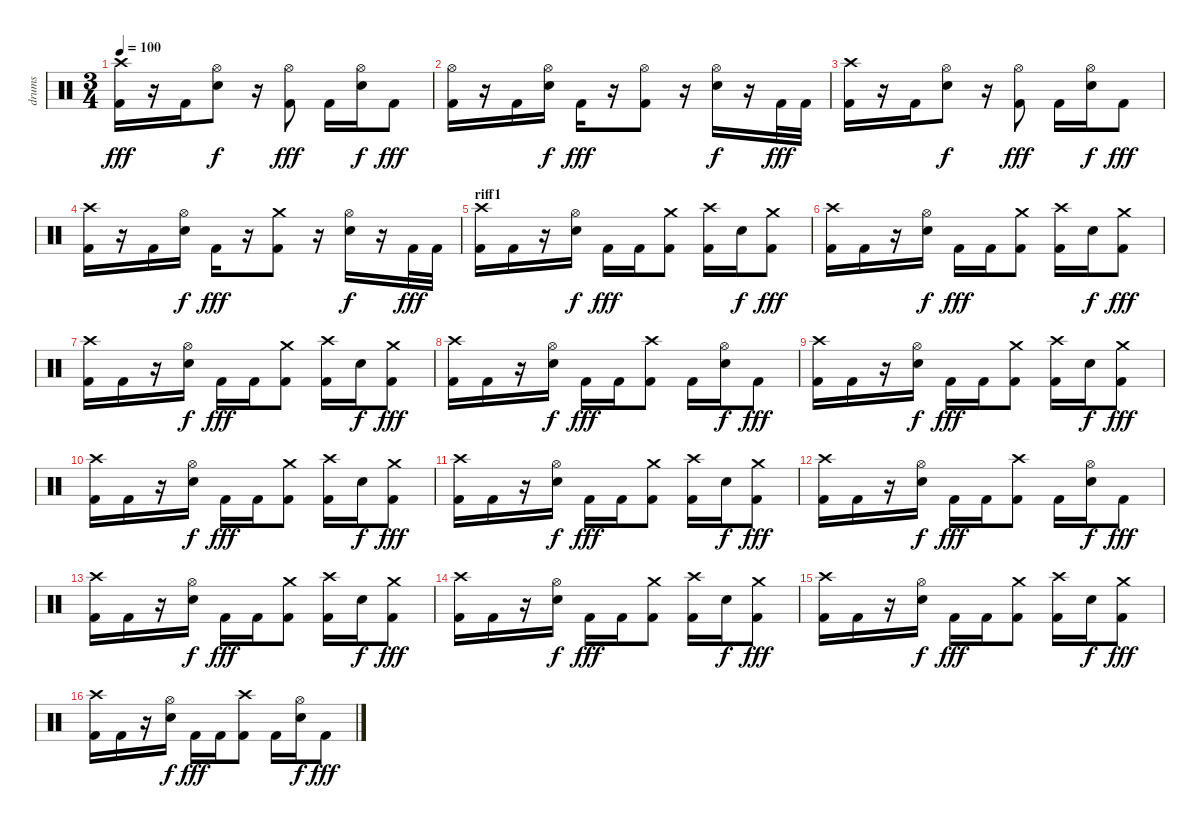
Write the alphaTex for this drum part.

\track ("drums" "drums") {instrument percussion}
\staff {score}
\articulation defaults
\ts (3 4)
\tempo 100
\clef neutral
\ks c
("Crash high (hit)" "Kick (hit) 2").16{dy fff} r.16 "Kick (hit) 2".16 ("Hi-Hat (open)" "Snare (hit) 2").8{dy f} r.16 ("Hi-Hat (open)" "Kick (hit) 2").8{dy fff} "Kick (hit) 2".16 ("Hi-Hat (open)" "Snare (hit) 2").16{dy f} "Kick (hit) 2".8{dy fff} |
("Hi-Hat (open)" "Kick (hit) 2").16 r.16 "Kick (hit) 2".16 ("Hi-Hat (open)" "Snare (hit) 2").16{dy f} "Kick (hit) 2".16{dy fff} r.16 ("Hi-Hat (open)" "Kick (hit) 2").8 r.16 ("Hi-Hat (open)" "Snare (hit) 2").16{dy f} r.16 "Kick (hit) 2".32{dy fff} "Kick (hit) 2".32 |
("Crash high (hit)" "Kick (hit) 2").16 r.16 "Kick (hit) 2".16 ("Hi-Hat (open)" "Snare (hit) 2").8{dy f} r.16 ("Hi-Hat (open)" "Kick (hit) 2").8{dy fff} "Kick (hit) 2".16 ("Hi-Hat (open)" "Snare (hit) 2").16{dy f} "Kick (hit) 2".8{dy fff} |
("Crash high (hit)" "Kick (hit) 2").16 r.16 "Kick (hit) 2".16 ("Hi-Hat (open)" "Snare (hit) 2").16{dy f} "Kick (hit) 2".16{dy fff} r.16 ("Crash medium (hit)" "Kick (hit) 2").8 r.16 ("Hi-Hat (open)" "Snare (hit) 2").16{dy f} r.16 "Kick (hit) 2".32{dy fff} "Kick (hit) 2".32 |
\section ("" "riff1")
("Crash high (hit)" "Kick (hit) 2").16 "Kick (hit) 2".16 r.16 ("Hi-Hat (open)" "Snare (hit) 2").16{dy f} "Kick (hit) 2".16{dy fff} "Kick (hit) 2".16 ("Crash medium (hit)" "Kick (hit) 2").8 ("Crash high (hit)" "Kick (hit) 2").16 "Snare (hit) 2".16{dy f} ("Crash medium (hit)" "Kick (hit) 2").8{dy fff} |
("Crash high (hit)" "Kick (hit) 2").16 "Kick (hit) 2".16 r.16 ("Hi-Hat (open)" "Snare (hit) 2").16{dy f} "Kick (hit) 2".16{dy fff} "Kick (hit) 2".16 ("Crash medium (hit)" "Kick (hit) 2").8 ("Crash high (hit)" "Kick (hit) 2").16 "Snare (hit) 2".16{dy f} ("Crash medium (hit)" "Kick (hit) 2").8{dy fff} |
("Crash high (hit)" "Kick (hit) 2").16 "Kick (hit) 2".16 r.16 ("Hi-Hat (open)" "Snare (hit) 2").16{dy f} "Kick (hit) 2".16{dy fff} "Kick (hit) 2".16 ("Crash medium (hit)" "Kick (hit) 2").8 ("Crash high (hit)" "Kick (hit) 2").16 "Snare (hit) 2".16{dy f} ("Crash medium (hit)" "Kick (hit) 2").8{dy fff} |
("Crash high (hit)" "Kick (hit) 2").16 "Kick (hit) 2".16 r.16 ("Hi-Hat (open)" "Snare (hit) 2").16{dy f} "Kick (hit) 2".16{dy fff} "Kick (hit) 2".16 ("Crash high (hit)" "Kick (hit) 2").8 "Kick (hit) 2".16 ("Hi-Hat (open)" "Snare (hit) 2").16{dy f} "Kick (hit) 2".8{dy fff} |
("Crash high (hit)" "Kick (hit) 2").16 "Kick (hit) 2".16 r.16 ("Hi-Hat (open)" "Snare (hit) 2").16{dy f} "Kick (hit) 2".16{dy fff} "Kick (hit) 2".16 ("Crash medium (hit)" "Kick (hit) 2").8 ("Crash high (hit)" "Kick (hit) 2").16 "Snare (hit) 2".16{dy f} ("Crash medium (hit)" "Kick (hit) 2").8{dy fff} |
("Crash high (hit)" "Kick (hit) 2").16 "Kick (hit) 2".16 r.16 ("Hi-Hat (open)" "Snare (hit) 2").16{dy f} "Kick (hit) 2".16{dy fff} "Kick (hit) 2".16 ("Crash medium (hit)" "Kick (hit) 2").8 ("Crash high (hit)" "Kick (hit) 2").16 "Snare (hit) 2".16{dy f} ("Crash medium (hit)" "Kick (hit) 2").8{dy fff} |
("Crash high (hit)" "Kick (hit) 2").16 "Kick (hit) 2".16 r.16 ("Hi-Hat (open)" "Snare (hit) 2").16{dy f} "Kick (hit) 2".16{dy fff} "Kick (hit) 2".16 ("Crash medium (hit)" "Kick (hit) 2").8 ("Crash high (hit)" "Kick (hit) 2").16 "Snare (hit) 2".16{dy f} ("Crash medium (hit)" "Kick (hit) 2").8{dy fff} |
("Crash high (hit)" "Kick (hit) 2").16 "Kick (hit) 2".16 r.16 ("Hi-Hat (open)" "Snare (hit) 2").16{dy f} "Kick (hit) 2".16{dy fff} "Kick (hit) 2".16 ("Crash high (hit)" "Kick (hit) 2").8 "Kick (hit) 2".16 ("Hi-Hat (open)" "Snare (hit) 2").16{dy f} "Kick (hit) 2".8{dy fff} |
("Crash high (hit)" "Kick (hit) 2").16 "Kick (hit) 2".16 r.16 ("Hi-Hat (open)" "Snare (hit) 2").16{dy f} "Kick (hit) 2".16{dy fff} "Kick (hit) 2".16 ("Crash medium (hit)" "Kick (hit) 2").8 ("Crash high (hit)" "Kick (hit) 2").16 "Snare (hit) 2".16{dy f} ("Crash medium (hit)" "Kick (hit) 2").8{dy fff} |
("Crash high (hit)" "Kick (hit) 2").16 "Kick (hit) 2".16 r.16 ("Hi-Hat (open)" "Snare (hit) 2").16{dy f} "Kick (hit) 2".16{dy fff} "Kick (hit) 2".16 ("Crash medium (hit)" "Kick (hit) 2").8 ("Crash high (hit)" "Kick (hit) 2").16 "Snare (hit) 2".16{dy f} ("Crash medium (hit)" "Kick (hit) 2").8{dy fff} |
("Crash high (hit)" "Kick (hit) 2").16 "Kick (hit) 2".16 r.16 ("Hi-Hat (open)" "Snare (hit) 2").16{dy f} "Kick (hit) 2".16{dy fff} "Kick (hit) 2".16 ("Crash medium (hit)" "Kick (hit) 2").8 ("Crash high (hit)" "Kick (hit) 2").16 "Snare (hit) 2".16{dy f} ("Crash medium (hit)" "Kick (hit) 2").8{dy fff} |
("Crash high (hit)" "Kick (hit) 2").16 "Kick (hit) 2".16 r.16 ("Hi-Hat (open)" "Snare (hit) 2").16{dy f} "Kick (hit) 2".16{dy fff} "Kick (hit) 2".16 ("Crash high (hit)" "Kick (hit) 2").8 "Kick (hit) 2".16 ("Hi-Hat (open)" "Snare (hit) 2").16{dy f} "Kick (hit) 2".8{dy fff}
